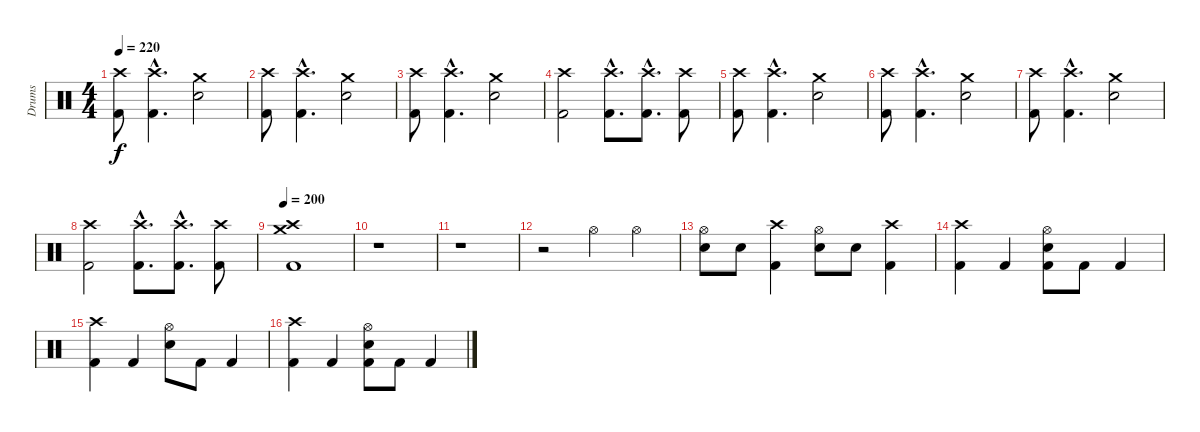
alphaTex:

\track ("Drums" "Drums") {instrument percussion}
\staff {score}
\articulation defaults
\ts (4 4)
\tempo 220
\clef neutral
\ks c
("Crash high (hit)" "Kick (hit) 2").8{dy f} ("Crash high (hit)"{hac} "Kick (hit) 2"{hac}).4{d} ("Crash medium (hit)" "Snare (hit) 2").2 |
("Crash high (hit)" "Kick (hit) 2").8 ("Crash high (hit)"{hac} "Kick (hit) 2"{hac}).4{d} ("Crash medium (hit)" "Snare (hit) 2").2 |
("Crash high (hit)" "Kick (hit) 2").8 ("Crash high (hit)"{hac} "Kick (hit) 2"{hac}).4{d} ("Crash medium (hit)" "Snare (hit) 2").2 |
("Crash high (hit)" "Kick (hit) 2").2 ("Crash high (hit)"{hac} "Kick (hit) 2"{hac}).8{d} ("Crash high (hit)"{hac} "Kick (hit) 2"{hac}).8{d} ("Crash high (hit)" "Kick (hit) 2").8 |
("Crash high (hit)" "Kick (hit) 2").8 ("Crash high (hit)"{hac} "Kick (hit) 2"{hac}).4{d} ("Crash medium (hit)" "Snare (hit) 2").2 |
("Crash high (hit)" "Kick (hit) 2").8 ("Crash high (hit)"{hac} "Kick (hit) 2"{hac}).4{d} ("Crash medium (hit)" "Snare (hit) 2").2 |
("Crash high (hit)" "Kick (hit) 2").8 ("Crash high (hit)"{hac} "Kick (hit) 2"{hac}).4{d} ("Crash medium (hit)" "Snare (hit) 2").2 |
("Crash high (hit)" "Kick (hit) 2").2 ("Crash high (hit)"{hac} "Kick (hit) 2"{hac}).8{d} ("Crash high (hit)"{hac} "Kick (hit) 2"{hac}).8{d} ("Crash high (hit)" "Kick (hit) 2").8 |
\tempo 200
("Crash high (hit)" "Crash medium (hit)" "Kick (hit) 2").1 |
r.1 |
r.1 |
r.2 "Hi-Hat (open)".4 "Hi-Hat (open)".4 |
("Hi-Hat (open)" "Snare (hit) 2").8 "Snare (hit) 2".8 ("Crash high (hit)" "Kick (hit) 2").4 ("Hi-Hat (open)" "Snare (hit) 2").8 "Snare (hit) 2".8 ("Crash high (hit)" "Kick (hit) 2").4 |
("Crash high (hit)" "Kick (hit) 2").4 "Kick (hit) 2".4 ("Hi-Hat (open)" "Snare (hit) 2" "Kick (hit) 2").8 "Kick (hit) 2".8 "Kick (hit) 2".4 |
("Crash high (hit)" "Kick (hit) 2").4 "Kick (hit) 2".4 ("Hi-Hat (open)" "Snare (hit) 2").8 "Kick (hit) 2".8 "Kick (hit) 2".4 |
("Crash high (hit)" "Kick (hit) 2").4 "Kick (hit) 2".4 ("Hi-Hat (open)" "Snare (hit) 2" "Kick (hit) 2").8 "Kick (hit) 2".8 "Kick (hit) 2".4
